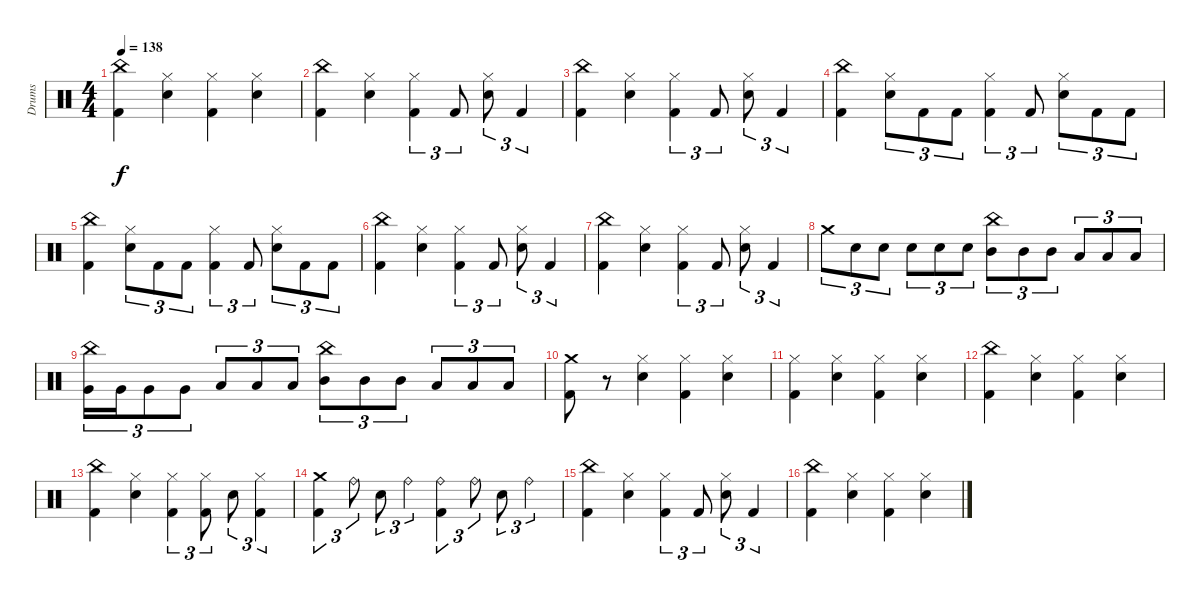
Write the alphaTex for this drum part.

\track ("Drums" "Drums") {instrument percussion}
\staff {score}
\articulation defaults
\ts (4 4)
\tempo 138
\clef neutral
\ks c
("Kick (hit) 2" "China (hit)").4{dy f} ("Hi-Hat (closed)" "Snare (hit) 2").4 ("Hi-Hat (closed)" "Kick (hit) 2").4 ("Hi-Hat (closed)" "Snare (hit) 2").4 |
("Kick (hit) 2" "China (hit)").4 ("Hi-Hat (closed)" "Snare (hit) 2").4 ("Hi-Hat (closed)" "Kick (hit) 2").4{tu (3 2)} "Kick (hit) 2".8{tu (3 2)} ("Hi-Hat (closed)" "Snare (hit) 2").8{tu (3 2)} "Kick (hit) 2".4{tu (3 2)} |
("Kick (hit) 2" "China (hit)").4 ("Hi-Hat (closed)" "Snare (hit) 2").4 ("Hi-Hat (closed)" "Kick (hit) 2").4{tu (3 2)} "Kick (hit) 2".8{tu (3 2)} ("Hi-Hat (closed)" "Snare (hit) 2").8{tu (3 2)} "Kick (hit) 2".4{tu (3 2)} |
("Kick (hit) 2" "China (hit)").4 ("Snare (hit) 2" "Hi-Hat (closed)").8{tu (3 2)} "Kick (hit) 2".8{tu (3 2)} "Kick (hit) 2".8{tu (3 2)} ("Hi-Hat (closed)" "Kick (hit) 2").4{tu (3 2)} "Kick (hit) 2".8{tu (3 2)} ("Snare (hit) 2" "Hi-Hat (closed)").8{tu (3 2)} "Kick (hit) 2".8{tu (3 2)} "Kick (hit) 2".8{tu (3 2)} |
("Kick (hit) 2" "China (hit)").4 ("Snare (hit) 2" "Hi-Hat (closed)").8{tu (3 2)} "Kick (hit) 2".8{tu (3 2)} "Kick (hit) 2".8{tu (3 2)} ("Hi-Hat (closed)" "Kick (hit) 2").4{tu (3 2)} "Kick (hit) 2".8{tu (3 2)} ("Snare (hit) 2" "Hi-Hat (closed)").8{tu (3 2)} "Kick (hit) 2".8{tu (3 2)} "Kick (hit) 2".8{tu (3 2)} |
("Kick (hit) 2" "China (hit)").4 ("Hi-Hat (closed)" "Snare (hit) 2").4 ("Hi-Hat (closed)" "Kick (hit) 2").4{tu (3 2)} "Kick (hit) 2".8{tu (3 2)} ("Hi-Hat (closed)" "Snare (hit) 2").8{tu (3 2)} "Kick (hit) 2".4{tu (3 2)} |
("Kick (hit) 2" "China (hit)").4 ("Hi-Hat (closed)" "Snare (hit) 2").4 ("Hi-Hat (closed)" "Kick (hit) 2").4{tu (3 2)} "Kick (hit) 2".8{tu (3 2)} ("Hi-Hat (closed)" "Snare (hit) 2").8{tu (3 2)} "Kick (hit) 2".4{tu (3 2)} |
"Crash medium (hit)".8{tu (3 2)} "Snare (hit) 2".8{tu (3 2)} "Snare (hit) 2".8{tu (3 2)} "Snare (hit) 2".8{tu (3 2)} "Snare (hit) 2".8{tu (3 2)} "Snare (hit) 2".8{tu (3 2)} ("China (hit)" "Mid Tom (hit)").8{tu (3 2)} "Mid Tom (hit)".8{tu (3 2)} "Mid Tom (hit)".8{tu (3 2)} "Low Tom (hit)".8{tu (3 2)} "Low Tom (hit)".8{tu (3 2)} "Low Tom (hit)".8{tu (3 2)} |
("China (hit)" "Very Low Tom (hit)").16{tu (3 2)} "Very Low Tom (hit)".16{tu (3 2)} "Very Low Tom (hit)".8{tu (3 2)} "Very Low Tom (hit)".8{tu (3 2)} "Low Tom (hit)".8{tu (3 2)} "Low Tom (hit)".8{tu (3 2)} "Low Tom (hit)".8{tu (3 2)} ("China (hit)" "Mid Tom (hit)").8{tu (3 2)} "Mid Tom (hit)".8{tu (3 2)} "Mid Tom (hit)".8{tu (3 2)} "Low Tom (hit)".8{tu (3 2)} "Low Tom (hit)".8{tu (3 2)} "Low Tom (hit)".8{tu (3 2)} |
("Crash medium (hit)" "Kick (hit) 2").8 r.8 ("Hi-Hat (closed)" "Snare (hit) 2").4 ("Hi-Hat (closed)" "Kick (hit) 2").4 ("Hi-Hat (closed)" "Snare (hit) 2").4 |
("Hi-Hat (closed)" "Kick (hit) 2").4 ("Hi-Hat (closed)" "Snare (hit) 2").4 ("Hi-Hat (closed)" "Kick (hit) 2").4 ("Hi-Hat (closed)" "Snare (hit) 2").4 |
("Kick (hit) 2" "China (hit)").4 ("Hi-Hat (closed)" "Snare (hit) 2").4 ("Hi-Hat (closed)" "Kick (hit) 2").4 ("Hi-Hat (closed)" "Snare (hit) 2").4 |
("Kick (hit) 2" "China (hit)").4 ("Hi-Hat (closed)" "Snare (hit) 2").4 ("Hi-Hat (closed)" "Kick (hit) 2").4{tu (3 2)} ("Hi-Hat (closed)" "Kick (hit) 2").8{tu (3 2)} "Snare (hit) 2".8{tu (3 2)} ("Hi-Hat (closed)" "Kick (hit) 2").4{tu (3 2)} |
("Kick (hit) 2" "Crash medium (hit)").4{tu (3 2)} "Ride (bell)".8{tu (3 2)} "Snare (hit) 2".8{tu (3 2)} "Ride (bell)".4{tu (3 2)} ("Kick (hit) 2" "Ride (bell)").4{tu (3 2)} "Ride (bell)".8{tu (3 2)} "Snare (hit) 2".8{tu (3 2)} "Ride (bell)".4{tu (3 2)} |
("Kick (hit) 2" "China (hit)").4 ("Hi-Hat (closed)" "Snare (hit) 2").4 ("Hi-Hat (closed)" "Kick (hit) 2").4{tu (3 2)} "Kick (hit) 2".8{tu (3 2)} ("Hi-Hat (closed)" "Snare (hit) 2").8{tu (3 2)} "Kick (hit) 2".4{tu (3 2)} |
("Kick (hit) 2" "China (hit)").4 ("Hi-Hat (closed)" "Snare (hit) 2").4 ("Hi-Hat (closed)" "Kick (hit) 2").4 ("Hi-Hat (closed)" "Snare (hit) 2").4
